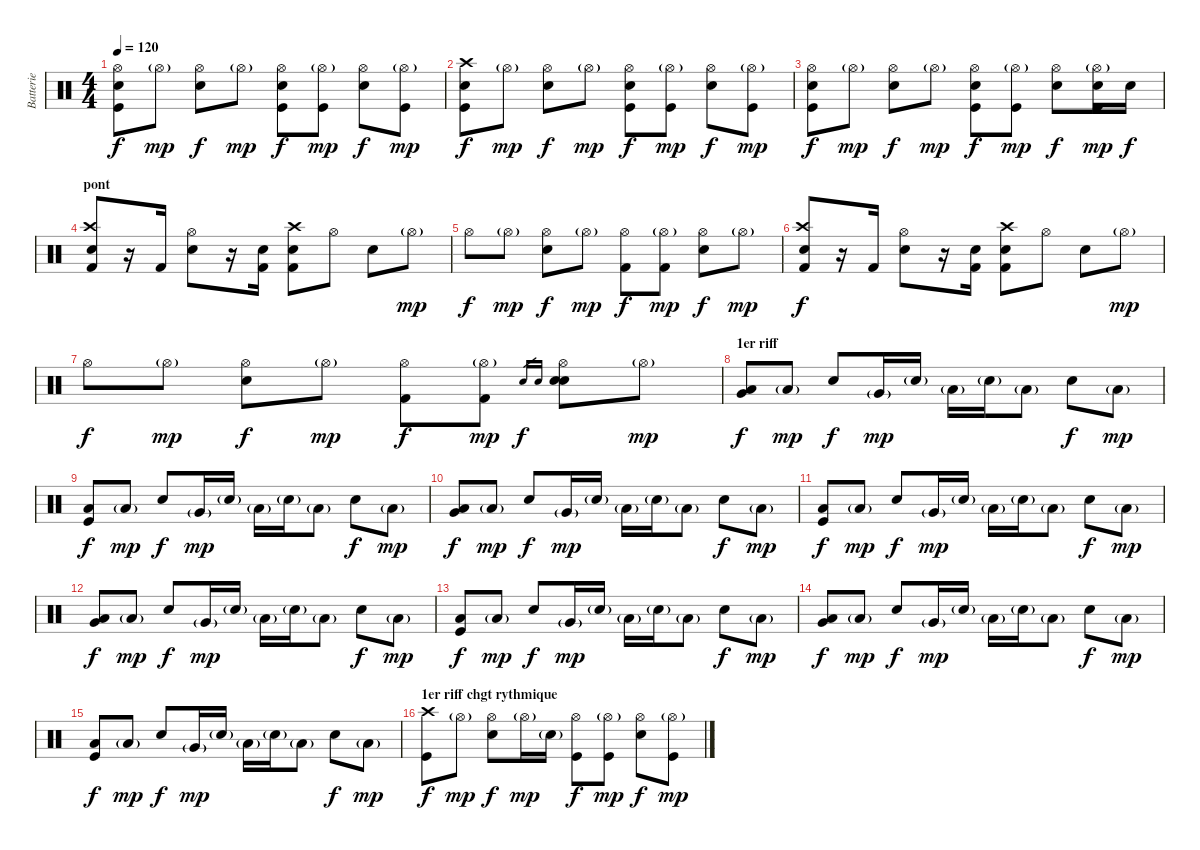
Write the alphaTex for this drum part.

\track ("Batterie" "Batterie") {instrument percussion}
\staff {score}
\articulation defaults
\ts (4 4)
\tempo 120
\clef neutral
\ks c
("Hi-Hat (open)" "Kick (hit)" "Electric Snare (hit)").8{dy f} "Hi-Hat (open)"{g}.8{dy mp} ("Hi-Hat (open)" "Electric Snare (hit)").8{dy f} "Hi-Hat (open)"{g}.8{dy mp} ("Hi-Hat (open)" "Kick (hit)" "Electric Snare (hit)").8{dy f} ("Hi-Hat (open)"{g} "Kick (hit)").8{dy mp} ("Hi-Hat (open)" "Electric Snare (hit)").8{dy f} ("Hi-Hat (open)"{g} "Kick (hit)").8{dy mp} |
("Crash high (hit)" "Kick (hit)" "Electric Snare (hit)").8{dy f} "Hi-Hat (open)"{g}.8{dy mp} ("Hi-Hat (open)" "Electric Snare (hit)").8{dy f} "Hi-Hat (open)"{g}.8{dy mp} ("Hi-Hat (open)" "Kick (hit)" "Electric Snare (hit)").8{dy f} ("Hi-Hat (open)"{g} "Kick (hit)").8{dy mp} ("Hi-Hat (open)" "Electric Snare (hit)").8{dy f} ("Hi-Hat (open)"{g} "Kick (hit)").8{dy mp} |
("Hi-Hat (open)" "Kick (hit)" "Electric Snare (hit)").8{dy f} "Hi-Hat (open)"{g}.8{dy mp} ("Hi-Hat (open)" "Electric Snare (hit)").8{dy f} "Hi-Hat (open)"{g}.8{dy mp} ("Hi-Hat (open)" "Kick (hit)" "Electric Snare (hit)").8{dy f} ("Hi-Hat (open)"{g} "Kick (hit)").8{dy mp} ("Hi-Hat (open)" "Electric Snare (hit)").8{dy f} ("Hi-Hat (open)"{g} "Kick (hit)" "Electric Snare (hit)").16{dy mp} "Electric Snare (hit)".16{dy f} |
\section ("" "pont")
("Crash high (hit)" "Kick (hit) 2" "Electric Snare (hit)").8 r.16 "Kick (hit) 2".16 ("Hi-Hat (open)" "Electric Snare (hit)").8 r.16 ("Kick (hit) 2" "Electric Snare (hit)").16 ("Crash high (hit)" "Kick (hit) 2" "Electric Snare (hit)").8 "Hi-Hat (open)".8 "Electric Snare (hit)".8 "Hi-Hat (open)"{g}.8{dy mp} |
"Hi-Hat (open)".8{dy f} "Hi-Hat (open)"{g}.8{dy mp} ("Hi-Hat (open)" "Electric Snare (hit)").8{dy f} "Hi-Hat (open)"{g}.8{dy mp} ("Hi-Hat (open)" "Kick (hit) 2").8{dy f} ("Hi-Hat (open)"{g} "Kick (hit) 2").8{dy mp} ("Hi-Hat (open)" "Electric Snare (hit)").8{dy f} "Hi-Hat (open)"{g}.8{dy mp} |
("Crash high (hit)" "Kick (hit) 2" "Electric Snare (hit)").8{dy f} r.16 "Kick (hit) 2".16 ("Hi-Hat (open)" "Electric Snare (hit)").8 r.16 ("Kick (hit) 2" "Electric Snare (hit)").16 ("Crash high (hit)" "Kick (hit) 2" "Electric Snare (hit)").8 "Hi-Hat (open)".8 "Electric Snare (hit)".8 "Hi-Hat (open)"{g}.8{dy mp} |
"Hi-Hat (open)".8{dy f} "Hi-Hat (open)"{g}.8{dy mp} ("Hi-Hat (open)" "Electric Snare (hit)").8{dy f} "Hi-Hat (open)"{g}.8{dy mp} ("Hi-Hat (open)" "Kick (hit) 2").8{dy f} ("Hi-Hat (open)"{g} "Kick (hit) 2").8{dy mp} "Snare (hit) 2".16{gr dy f} "Electric Snare (hit)".16{gr} ("Hi-Hat (open)" "Snare (hit) 2" "Electric Snare (hit)").8 "Hi-Hat (open)"{g}.8{dy mp} |
\section ("" "1er riff")
("Very Low Tom (hit)" "Low Floor Tom (hit)").8{dy f} "Low Floor Tom (hit)"{g}.8{dy mp} "Electric Snare (hit)".8{dy f} "Very Low Tom (hit)"{g}.16{dy mp} "Snare (hit) 2"{g}.16 "Low Floor Tom (hit)"{g}.16 "Snare (hit) 2"{g}.16 "Low Floor Tom (hit)"{g}.8 "Electric Snare (hit)".8{dy f} "Low Floor Tom (hit)"{g}.8{dy mp} |
("Kick (hit)" "Low Floor Tom (hit)").8{dy f} "Low Floor Tom (hit)"{g}.8{dy mp} "Electric Snare (hit)".8{dy f} "Very Low Tom (hit)"{g}.16{dy mp} "Snare (hit) 2"{g}.16 "Low Floor Tom (hit)"{g}.16 "Snare (hit) 2"{g}.16 "Low Floor Tom (hit)"{g}.8 "Electric Snare (hit)".8{dy f} "Low Floor Tom (hit)"{g}.8{dy mp} |
("Very Low Tom (hit)" "Low Floor Tom (hit)").8{dy f} "Low Floor Tom (hit)"{g}.8{dy mp} "Electric Snare (hit)".8{dy f} "Very Low Tom (hit)"{g}.16{dy mp} "Snare (hit) 2"{g}.16 "Low Floor Tom (hit)"{g}.16 "Snare (hit) 2"{g}.16 "Low Floor Tom (hit)"{g}.8 "Electric Snare (hit)".8{dy f} "Low Floor Tom (hit)"{g}.8{dy mp} |
("Kick (hit)" "Low Floor Tom (hit)").8{dy f} "Low Floor Tom (hit)"{g}.8{dy mp} "Electric Snare (hit)".8{dy f} "Very Low Tom (hit)"{g}.16{dy mp} "Snare (hit) 2"{g}.16 "Low Floor Tom (hit)"{g}.16 "Snare (hit) 2"{g}.16 "Low Floor Tom (hit)"{g}.8 "Electric Snare (hit)".8{dy f} "Low Floor Tom (hit)"{g}.8{dy mp} |
("Very Low Tom (hit)" "Low Floor Tom (hit)").8{dy f} "Low Floor Tom (hit)"{g}.8{dy mp} "Electric Snare (hit)".8{dy f} "Very Low Tom (hit)"{g}.16{dy mp} "Snare (hit) 2"{g}.16 "Low Floor Tom (hit)"{g}.16 "Snare (hit) 2"{g}.16 "Low Floor Tom (hit)"{g}.8 "Electric Snare (hit)".8{dy f} "Low Floor Tom (hit)"{g}.8{dy mp} |
("Kick (hit)" "Low Floor Tom (hit)").8{dy f} "Low Floor Tom (hit)"{g}.8{dy mp} "Electric Snare (hit)".8{dy f} "Very Low Tom (hit)"{g}.16{dy mp} "Snare (hit) 2"{g}.16 "Low Floor Tom (hit)"{g}.16 "Snare (hit) 2"{g}.16 "Low Floor Tom (hit)"{g}.8 "Electric Snare (hit)".8{dy f} "Low Floor Tom (hit)"{g}.8{dy mp} |
("Very Low Tom (hit)" "Low Floor Tom (hit)").8{dy f} "Low Floor Tom (hit)"{g}.8{dy mp} "Electric Snare (hit)".8{dy f} "Very Low Tom (hit)"{g}.16{dy mp} "Snare (hit) 2"{g}.16 "Low Floor Tom (hit)"{g}.16 "Snare (hit) 2"{g}.16 "Low Floor Tom (hit)"{g}.8 "Electric Snare (hit)".8{dy f} "Low Floor Tom (hit)"{g}.8{dy mp} |
("Kick (hit)" "Low Floor Tom (hit)").8{dy f} "Low Floor Tom (hit)"{g}.8{dy mp} "Electric Snare (hit)".8{dy f} "Very Low Tom (hit)"{g}.16{dy mp} "Snare (hit) 2"{g}.16 "Low Floor Tom (hit)"{g}.16 "Snare (hit) 2"{g}.16 "Low Floor Tom (hit)"{g}.8 "Electric Snare (hit)".8{dy f} "Low Floor Tom (hit)"{g}.8{dy mp} |
\section ("" "1er riff chgt rythmique")
("Crash high (hit)" "Kick (hit)").8{dy f} "Hi-Hat (open)"{g}.8{dy mp} ("Hi-Hat (open)" "Snare (hit) 2").8{dy f} "Hi-Hat (open)"{g}.16{dy mp} "Snare (hit) 2"{g}.16 ("Hi-Hat (open)" "Kick (hit)").8{dy f} ("Hi-Hat (open)"{g} "Kick (hit)").8{dy mp} ("Hi-Hat (open)" "Snare (hit) 2").8{dy f} ("Hi-Hat (open)"{g} "Kick (hit)").8{dy mp}
